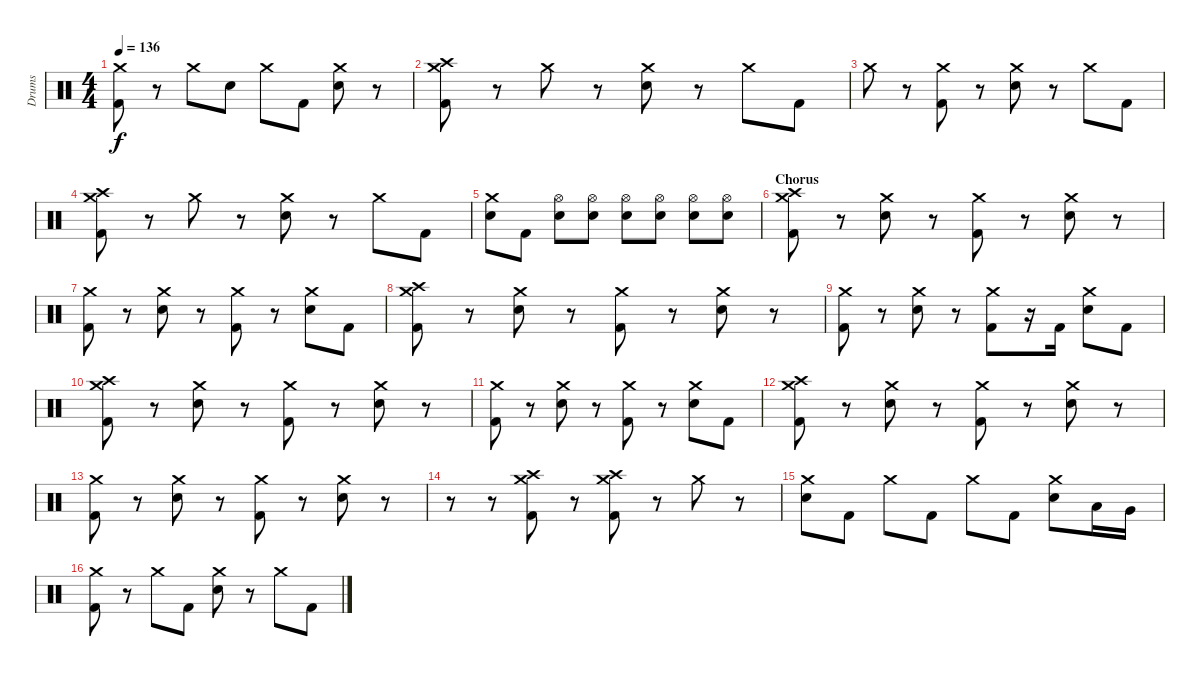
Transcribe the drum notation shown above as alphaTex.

\track ("Drums" "Drums") {instrument percussion}
\staff {score}
\articulation defaults
\ts (4 4)
\tempo 136
\clef neutral
\ks c
("Crash medium (hit)" "Kick (hit) 2").8{dy f} r.8 "Crash medium (hit)".8 "Electric Snare (hit)".8 "Crash medium (hit)".8 "Kick (hit) 2".8 ("Crash medium (hit)" "Electric Snare (hit)").8 r.8 |
("Crash medium (hit)" "Crash high (hit)" "Kick (hit) 2").8 r.8 "Crash medium (hit)".8 r.8 ("Crash medium (hit)" "Electric Snare (hit)").8 r.8 "Crash medium (hit)".8 "Kick (hit) 2".8 |
"Crash medium (hit)".8 r.8 ("Crash medium (hit)" "Kick (hit) 2").8 r.8 ("Crash medium (hit)" "Electric Snare (hit)").8 r.8 "Crash medium (hit)".8 "Kick (hit) 2".8 |
("Crash medium (hit)" "Crash high (hit)" "Kick (hit) 2").8 r.8 "Crash medium (hit)".8 r.8 ("Crash medium (hit)" "Electric Snare (hit)").8 r.8 "Crash medium (hit)".8 "Kick (hit) 2".8 |
("Crash medium (hit)" "Electric Snare (hit)").8 "Kick (hit) 2".8 ("Hi-Hat (open)" "Electric Snare (hit)").8 ("Hi-Hat (open)" "Electric Snare (hit)").8 ("Hi-Hat (open)" "Electric Snare (hit)").8 ("Hi-Hat (open)" "Electric Snare (hit)").8 ("Hi-Hat (open)" "Electric Snare (hit)").8 ("Hi-Hat (open)" "Electric Snare (hit)").8 |
\section ("" "Chorus")
("Crash medium (hit)" "Crash high (hit)" "Kick (hit) 2").8 r.8 ("Crash medium (hit)" "Electric Snare (hit)").8 r.8 ("Crash medium (hit)" "Kick (hit) 2").8 r.8 ("Crash medium (hit)" "Electric Snare (hit)").8 r.8 |
("Crash medium (hit)" "Kick (hit) 2").8 r.8 ("Crash medium (hit)" "Electric Snare (hit)").8 r.8 ("Crash medium (hit)" "Kick (hit) 2").8 r.8 ("Crash medium (hit)" "Electric Snare (hit)").8 "Kick (hit) 2".8 |
("Crash medium (hit)" "Crash high (hit)" "Kick (hit) 2").8 r.8 ("Crash medium (hit)" "Electric Snare (hit)").8 r.8 ("Crash medium (hit)" "Kick (hit) 2").8 r.8 ("Crash medium (hit)" "Electric Snare (hit)").8 r.8 |
("Crash medium (hit)" "Kick (hit) 2").8 r.8 ("Crash medium (hit)" "Electric Snare (hit)").8 r.8 ("Crash medium (hit)" "Kick (hit) 2").8 r.16 "Kick (hit) 2".16 ("Crash medium (hit)" "Electric Snare (hit)").8 "Kick (hit) 2".8 |
("Crash medium (hit)" "Crash high (hit)" "Kick (hit) 2").8 r.8 ("Crash medium (hit)" "Electric Snare (hit)").8 r.8 ("Crash medium (hit)" "Kick (hit) 2").8 r.8 ("Crash medium (hit)" "Electric Snare (hit)").8 r.8 |
("Crash medium (hit)" "Kick (hit) 2").8 r.8 ("Crash medium (hit)" "Electric Snare (hit)").8 r.8 ("Crash medium (hit)" "Kick (hit) 2").8 r.8 ("Crash medium (hit)" "Electric Snare (hit)").8 "Kick (hit) 2".8 |
("Crash medium (hit)" "Crash high (hit)" "Kick (hit) 2").8 r.8 ("Crash medium (hit)" "Electric Snare (hit)").8 r.8 ("Crash medium (hit)" "Kick (hit) 2").8 r.8 ("Crash medium (hit)" "Electric Snare (hit)").8 r.8 |
("Crash medium (hit)" "Kick (hit) 2").8 r.8 ("Crash medium (hit)" "Electric Snare (hit)").8 r.8 ("Crash medium (hit)" "Kick (hit) 2").8 r.8 ("Crash medium (hit)" "Electric Snare (hit)").8 r.8 |
r.8 r.8 ("Crash medium (hit)" "Crash high (hit)" "Kick (hit) 2").8 r.8 ("Crash medium (hit)" "Crash high (hit)" "Kick (hit) 2").8 r.8 "Crash medium (hit)".8 r.8 |
("Crash medium (hit)" "Electric Snare (hit)").8 "Kick (hit) 2".8 "Crash medium (hit)".8 "Kick (hit) 2".8 "Crash medium (hit)".8 "Kick (hit) 2".8 ("Crash medium (hit)" "Electric Snare (hit)").8 "Low Tom (hit)".16 "Very Low Tom (hit)".16 |
("Crash medium (hit)" "Kick (hit) 2").8 r.8 "Crash medium (hit)".8 "Kick (hit) 2".8 ("Crash medium (hit)" "Electric Snare (hit)").8 r.8 "Crash medium (hit)".8 "Kick (hit) 2".8
